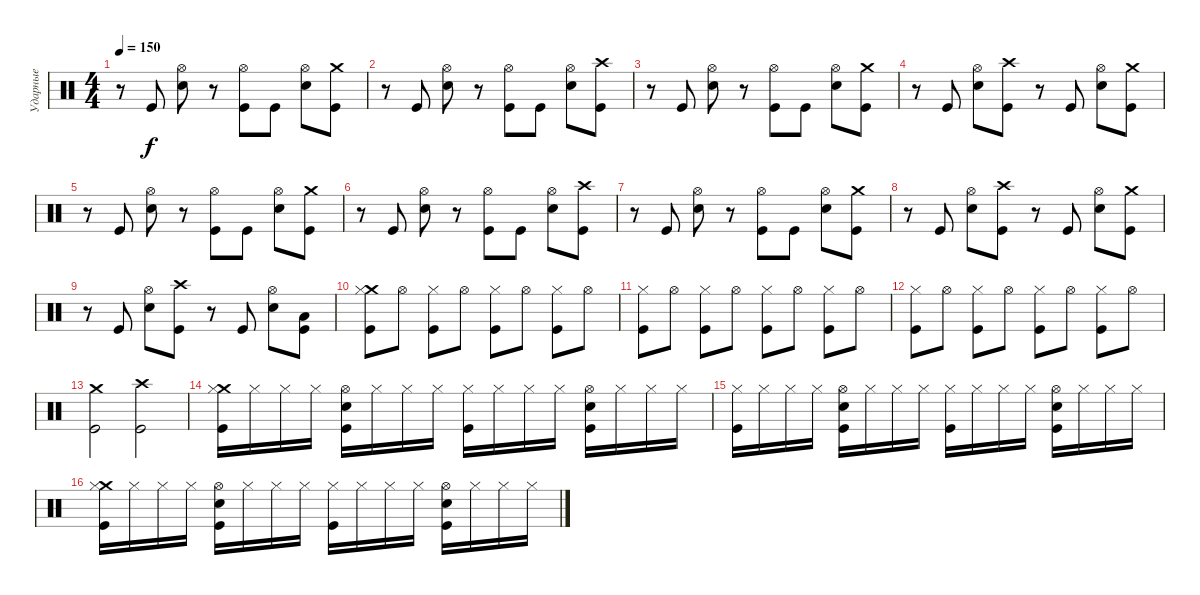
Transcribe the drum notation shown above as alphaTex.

\track ("Ударные" "Ударные") {instrument percussion}
\staff {score}
\articulation defaults
\ts (4 4)
\tempo 150
\clef neutral
\ks c
r.8{dy f} "Kick (hit)".8 ("Hi-Hat (open)" "Electric Snare (hit)").8 r.8 ("Hi-Hat (open)" "Kick (hit)").8 "Kick (hit)".8 ("Hi-Hat (open)" "Electric Snare (hit)").8 ("Crash medium (hit)" "Kick (hit)").8 |
r.8 "Kick (hit)".8 ("Hi-Hat (open)" "Electric Snare (hit)").8 r.8 ("Hi-Hat (open)" "Kick (hit)").8 "Kick (hit)".8 ("Hi-Hat (open)" "Electric Snare (hit)").8 ("Crash high (hit)" "Kick (hit)").8 |
r.8 "Kick (hit)".8 ("Hi-Hat (open)" "Electric Snare (hit)").8 r.8 ("Hi-Hat (open)" "Kick (hit)").8 "Kick (hit)".8 ("Hi-Hat (open)" "Electric Snare (hit)").8 ("Crash medium (hit)" "Kick (hit)").8 |
r.8 "Kick (hit)".8 ("Hi-Hat (open)" "Electric Snare (hit)").8 ("Crash high (hit)" "Kick (hit)").8 r.8 "Kick (hit)".8 ("Hi-Hat (open)" "Electric Snare (hit)").8 ("Crash medium (hit)" "Kick (hit)").8 |
r.8 "Kick (hit)".8 ("Hi-Hat (open)" "Electric Snare (hit)").8 r.8 ("Hi-Hat (open)" "Kick (hit)").8 "Kick (hit)".8 ("Hi-Hat (open)" "Electric Snare (hit)").8 ("Crash medium (hit)" "Kick (hit)").8 |
r.8 "Kick (hit)".8 ("Hi-Hat (open)" "Electric Snare (hit)").8 r.8 ("Hi-Hat (open)" "Kick (hit)").8 "Kick (hit)".8 ("Hi-Hat (open)" "Electric Snare (hit)").8 ("Crash high (hit)" "Kick (hit)").8 |
r.8 "Kick (hit)".8 ("Hi-Hat (open)" "Electric Snare (hit)").8 r.8 ("Hi-Hat (open)" "Kick (hit)").8 "Kick (hit)".8 ("Hi-Hat (open)" "Electric Snare (hit)").8 ("Crash medium (hit)" "Kick (hit)").8 |
r.8 "Kick (hit)".8 ("Hi-Hat (open)" "Electric Snare (hit)").8 ("Crash high (hit)" "Kick (hit)").8 r.8 "Kick (hit)".8 ("Hi-Hat (open)" "Electric Snare (hit)").8 ("Crash medium (hit)" "Kick (hit)").8 |
r.8 "Kick (hit)".8 ("Hi-Hat (open)" "Electric Snare (hit)").8 ("Crash high (hit)" "Kick (hit)").8 r.8 "Kick (hit)".8 ("Hi-Hat (open)" "Electric Snare (hit)").8 ("Low Floor Tom (hit)" "Kick (hit)").8 |
("Crash medium (hit)" "Hi-Hat (closed)" "Kick (hit)").8 "Hi-Hat (open)".8 ("Hi-Hat (closed)" "Kick (hit)").8 "Hi-Hat (open)".8 ("Hi-Hat (closed)" "Kick (hit)").8 "Hi-Hat (open)".8 ("Hi-Hat (closed)" "Kick (hit)").8 "Hi-Hat (open)".8 |
("Hi-Hat (closed)" "Kick (hit)").8 "Hi-Hat (open)".8 ("Hi-Hat (closed)" "Kick (hit)").8 "Hi-Hat (open)".8 ("Hi-Hat (closed)" "Kick (hit)").8 "Hi-Hat (open)".8 ("Hi-Hat (closed)" "Kick (hit)").8 "Hi-Hat (open)".8 |
("Hi-Hat (closed)" "Kick (hit)").8 "Hi-Hat (open)".8 ("Hi-Hat (closed)" "Kick (hit)").8 "Hi-Hat (open)".8 ("Hi-Hat (closed)" "Kick (hit)").8 "Hi-Hat (open)".8 ("Hi-Hat (closed)" "Kick (hit)").8 "Hi-Hat (open)".8 |
("Crash medium (hit)" "Kick (hit)").2 ("Crash high (hit)" "Kick (hit)").2 |
("Crash medium (hit)" "Hi-Hat (closed)" "Kick (hit)").16 "Hi-Hat (closed)".16 "Hi-Hat (closed)".16 "Hi-Hat (closed)".16 ("Hi-Hat (open)" "Electric Snare (hit)" "Kick (hit)").16 "Hi-Hat (closed)".16 "Hi-Hat (closed)".16 "Hi-Hat (closed)".16 ("Hi-Hat (closed)" "Kick (hit)").16 "Hi-Hat (closed)".16 "Hi-Hat (closed)".16 "Hi-Hat (closed)".16 ("Hi-Hat (open)" "Electric Snare (hit)" "Kick (hit)").16 "Hi-Hat (closed)".16 "Hi-Hat (closed)".16 "Hi-Hat (closed)".16 |
("Hi-Hat (closed)" "Kick (hit)").16 "Hi-Hat (closed)".16 "Hi-Hat (closed)".16 "Hi-Hat (closed)".16 ("Hi-Hat (open)" "Electric Snare (hit)" "Kick (hit)").16 "Hi-Hat (closed)".16 "Hi-Hat (closed)".16 "Hi-Hat (closed)".16 ("Hi-Hat (closed)" "Kick (hit)").16 "Hi-Hat (closed)".16 "Hi-Hat (closed)".16 "Hi-Hat (closed)".16 ("Hi-Hat (open)" "Electric Snare (hit)" "Kick (hit)").16 "Hi-Hat (closed)".16 "Hi-Hat (closed)".16 "Hi-Hat (closed)".16 |
("Crash medium (hit)" "Hi-Hat (closed)" "Kick (hit)").16 "Hi-Hat (closed)".16 "Hi-Hat (closed)".16 "Hi-Hat (closed)".16 ("Hi-Hat (open)" "Electric Snare (hit)" "Kick (hit)").16 "Hi-Hat (closed)".16 "Hi-Hat (closed)".16 "Hi-Hat (closed)".16 ("Hi-Hat (closed)" "Kick (hit)").16 "Hi-Hat (closed)".16 "Hi-Hat (closed)".16 "Hi-Hat (closed)".16 ("Hi-Hat (open)" "Electric Snare (hit)" "Kick (hit)").16 "Hi-Hat (closed)".16 "Hi-Hat (closed)".16 "Hi-Hat (closed)".16
